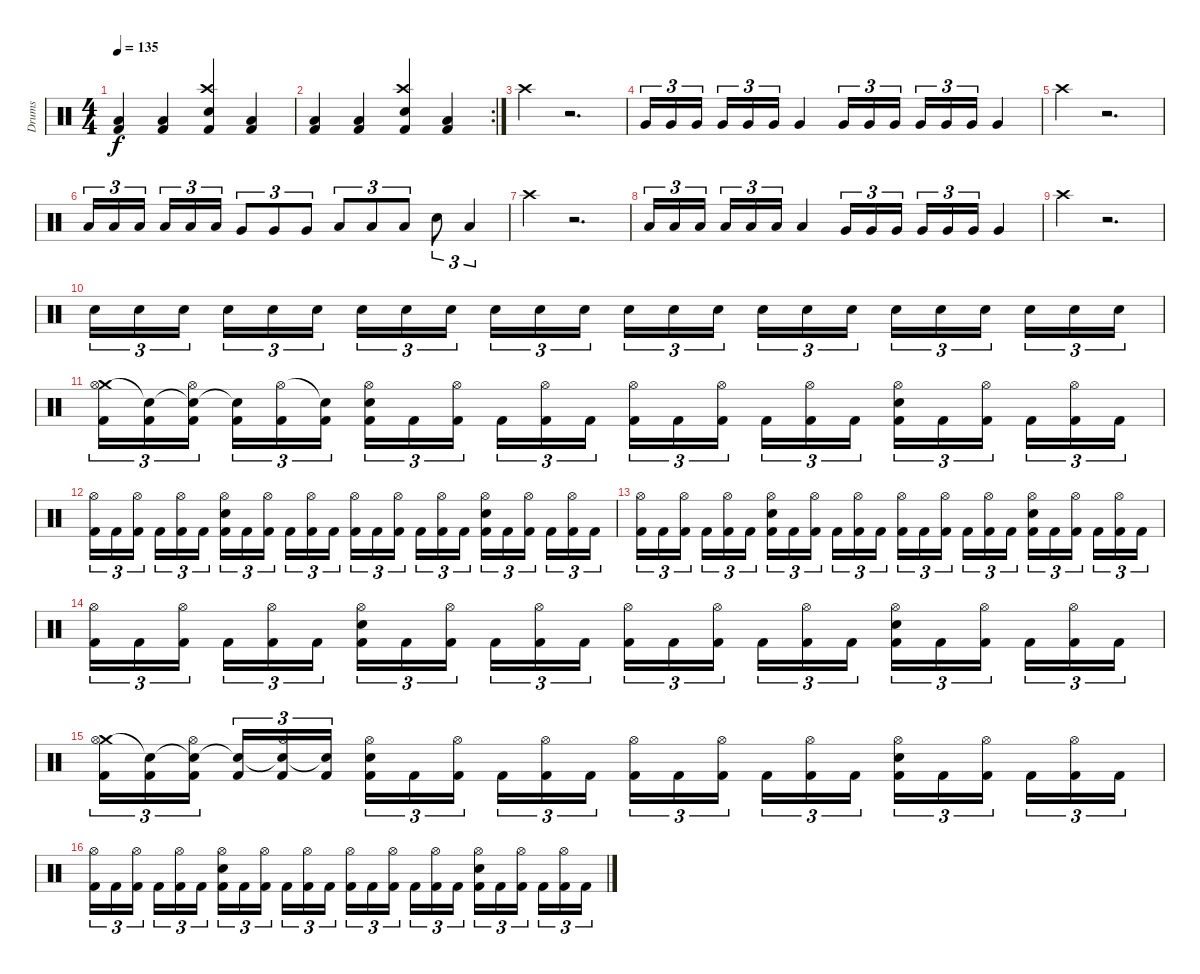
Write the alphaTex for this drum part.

\track ("Drums" "Drums") {instrument percussion}
\staff {score}
\articulation defaults
\ts (4 4)
\tempo 135
\clef neutral
\ks c
("Low Floor Tom (hit)" "Kick (hit) 2").4{dy f} ("Low Floor Tom (hit)" "Kick (hit) 2").4 ("Crash high (hit)" "Electric Snare (hit)" "Kick (hit) 2").4 ("Low Floor Tom (hit)" "Kick (hit) 2").4 |
\rc 2
("Low Floor Tom (hit)" "Kick (hit) 2").4 ("Low Floor Tom (hit)" "Kick (hit) 2").4 ("Crash high (hit)" "Electric Snare (hit)" "Kick (hit) 2").4 ("Low Floor Tom (hit)" "Kick (hit) 2").4 |
"Crash high (hit)".4 r.2{d} |
"Very Low Tom (hit)".16{tu (3 2)} "Very Low Tom (hit)".16{tu (3 2)} "Very Low Tom (hit)".16{tu (3 2)} "Very Low Tom (hit)".16{tu (3 2)} "Very Low Tom (hit)".16{tu (3 2)} "Very Low Tom (hit)".16{tu (3 2)} "Very Low Tom (hit)".4 "Very Low Tom (hit)".16{tu (3 2)} "Very Low Tom (hit)".16{tu (3 2)} "Very Low Tom (hit)".16{tu (3 2)} "Very Low Tom (hit)".16{tu (3 2)} "Very Low Tom (hit)".16{tu (3 2)} "Very Low Tom (hit)".16{tu (3 2)} "Very Low Tom (hit)".4 |
"Crash high (hit)".4 r.2{d} |
"Low Tom (hit)".16{tu (3 2)} "Low Tom (hit)".16{tu (3 2)} "Low Tom (hit)".16{tu (3 2)} "Low Tom (hit)".16{tu (3 2)} "Low Tom (hit)".16{tu (3 2)} "Low Tom (hit)".16{tu (3 2)} "Very Low Tom (hit)".8{tu (3 2)} "Very Low Tom (hit)".8{tu (3 2)} "Very Low Tom (hit)".8{tu (3 2)} "Low Floor Tom (hit)".8{tu (3 2)} "Low Floor Tom (hit)".8{tu (3 2)} "Low Floor Tom (hit)".8{tu (3 2)} "Electric Snare (hit)".8{tu (3 2)} "Low Floor Tom (hit)".4{tu (3 2)} |
"Crash high (hit)".4 r.2{d} |
"Low Tom (hit)".16{tu (3 2)} "Low Tom (hit)".16{tu (3 2)} "Low Tom (hit)".16{tu (3 2)} "Low Tom (hit)".16{tu (3 2)} "Low Tom (hit)".16{tu (3 2)} "Low Tom (hit)".16{tu (3 2)} "Low Tom (hit)".4 "Very Low Tom (hit)".16{tu (3 2)} "Very Low Tom (hit)".16{tu (3 2)} "Very Low Tom (hit)".16{tu (3 2)} "Very Low Tom (hit)".16{tu (3 2)} "Very Low Tom (hit)".16{tu (3 2)} "Very Low Tom (hit)".16{tu (3 2)} "Very Low Tom (hit)".4 |
"Crash high (hit)".4 r.2{d} |
"Electric Snare (hit)".16{tu (3 2)} "Electric Snare (hit)".16{tu (3 2)} "Electric Snare (hit)".16{tu (3 2)} "Electric Snare (hit)".16{tu (3 2)} "Electric Snare (hit)".16{tu (3 2)} "Electric Snare (hit)".16{tu (3 2)} "Electric Snare (hit)".16{tu (3 2)} "Electric Snare (hit)".16{tu (3 2)} "Electric Snare (hit)".16{tu (3 2)} "Electric Snare (hit)".16{tu (3 2)} "Electric Snare (hit)".16{tu (3 2)} "Electric Snare (hit)".16{tu (3 2)} "Electric Snare (hit)".16{tu (3 2)} "Electric Snare (hit)".16{tu (3 2)} "Electric Snare (hit)".16{tu (3 2)} "Electric Snare (hit)".16{tu (3 2)} "Electric Snare (hit)".16{tu (3 2)} "Electric Snare (hit)".16{tu (3 2)} "Electric Snare (hit)".16{tu (3 2)} "Electric Snare (hit)".16{tu (3 2)} "Electric Snare (hit)".16{tu (3 2)} "Electric Snare (hit)".16{tu (3 2)} "Electric Snare (hit)".16{tu (3 2)} "Electric Snare (hit)".16{tu (3 2)} |
("Crash medium (hit)" "Hi-Hat (open)" "Kick (hit) 2").16{tu (3 2)} ("Snare (hit)"{t} "Kick (hit) 2").16{tu (3 2)} ("Snare (hit)"{t} "Hi-Hat (open)" "Kick (hit) 2").16{tu (3 2)} ("Snare (hit)"{t} "Kick (hit) 2").16{tu (3 2)} ("Hi-Hat (open)" "Kick (hit) 2").16{tu (3 2)} ("Snare (hit)"{t} "Kick (hit) 2").16{tu (3 2)} ("Hi-Hat (open)" "Electric Snare (hit)" "Kick (hit) 2").16{tu (3 2)} "Kick (hit) 2".16{tu (3 2)} ("Hi-Hat (open)" "Kick (hit) 2").16{tu (3 2)} "Kick (hit) 2".16{tu (3 2)} ("Hi-Hat (open)" "Kick (hit) 2").16{tu (3 2)} "Kick (hit) 2".16{tu (3 2)} ("Hi-Hat (open)" "Kick (hit) 2").16{tu (3 2)} "Kick (hit) 2".16{tu (3 2)} ("Hi-Hat (open)" "Kick (hit) 2").16{tu (3 2)} "Kick (hit) 2".16{tu (3 2)} ("Hi-Hat (open)" "Kick (hit) 2").16{tu (3 2)} "Kick (hit) 2".16{tu (3 2)} ("Hi-Hat (open)" "Electric Snare (hit)" "Kick (hit) 2").16{tu (3 2)} "Kick (hit) 2".16{tu (3 2)} ("Hi-Hat (open)" "Kick (hit) 2").16{tu (3 2)} "Kick (hit) 2".16{tu (3 2)} ("Hi-Hat (open)" "Kick (hit) 2").16{tu (3 2)} "Kick (hit) 2".16{tu (3 2)} |
("Hi-Hat (open)" "Kick (hit) 2").16{tu (3 2)} "Kick (hit) 2".16{tu (3 2)} ("Hi-Hat (open)" "Kick (hit) 2").16{tu (3 2)} "Kick (hit) 2".16{tu (3 2)} ("Hi-Hat (open)" "Kick (hit) 2").16{tu (3 2)} "Kick (hit) 2".16{tu (3 2)} ("Hi-Hat (open)" "Electric Snare (hit)" "Kick (hit) 2").16{tu (3 2)} "Kick (hit) 2".16{tu (3 2)} ("Hi-Hat (open)" "Kick (hit) 2").16{tu (3 2)} "Kick (hit) 2".16{tu (3 2)} ("Hi-Hat (open)" "Kick (hit) 2").16{tu (3 2)} "Kick (hit) 2".16{tu (3 2)} ("Hi-Hat (open)" "Kick (hit) 2").16{tu (3 2)} "Kick (hit) 2".16{tu (3 2)} ("Hi-Hat (open)" "Kick (hit) 2").16{tu (3 2)} "Kick (hit) 2".16{tu (3 2)} ("Hi-Hat (open)" "Kick (hit) 2").16{tu (3 2)} "Kick (hit) 2".16{tu (3 2)} ("Hi-Hat (open)" "Electric Snare (hit)" "Kick (hit) 2").16{tu (3 2)} "Kick (hit) 2".16{tu (3 2)} ("Hi-Hat (open)" "Kick (hit) 2").16{tu (3 2)} "Kick (hit) 2".16{tu (3 2)} ("Hi-Hat (open)" "Kick (hit) 2").16{tu (3 2)} "Kick (hit) 2".16{tu (3 2)} |
("Hi-Hat (open)" "Kick (hit) 2").16{tu (3 2)} "Kick (hit) 2".16{tu (3 2)} ("Hi-Hat (open)" "Kick (hit) 2").16{tu (3 2)} "Kick (hit) 2".16{tu (3 2)} ("Hi-Hat (open)" "Kick (hit) 2").16{tu (3 2)} "Kick (hit) 2".16{tu (3 2)} ("Hi-Hat (open)" "Electric Snare (hit)" "Kick (hit) 2").16{tu (3 2)} "Kick (hit) 2".16{tu (3 2)} ("Hi-Hat (open)" "Kick (hit) 2").16{tu (3 2)} "Kick (hit) 2".16{tu (3 2)} ("Hi-Hat (open)" "Kick (hit) 2").16{tu (3 2)} "Kick (hit) 2".16{tu (3 2)} ("Hi-Hat (open)" "Kick (hit) 2").16{tu (3 2)} "Kick (hit) 2".16{tu (3 2)} ("Hi-Hat (open)" "Kick (hit) 2").16{tu (3 2)} "Kick (hit) 2".16{tu (3 2)} ("Hi-Hat (open)" "Kick (hit) 2").16{tu (3 2)} "Kick (hit) 2".16{tu (3 2)} ("Hi-Hat (open)" "Electric Snare (hit)" "Kick (hit) 2").16{tu (3 2)} "Kick (hit) 2".16{tu (3 2)} ("Hi-Hat (open)" "Kick (hit) 2").16{tu (3 2)} "Kick (hit) 2".16{tu (3 2)} ("Hi-Hat (open)" "Kick (hit) 2").16{tu (3 2)} "Kick (hit) 2".16{tu (3 2)} |
("Hi-Hat (open)" "Kick (hit) 2").16{tu (3 2)} "Kick (hit) 2".16{tu (3 2)} ("Hi-Hat (open)" "Kick (hit) 2").16{tu (3 2)} "Kick (hit) 2".16{tu (3 2)} ("Hi-Hat (open)" "Kick (hit) 2").16{tu (3 2)} "Kick (hit) 2".16{tu (3 2)} ("Hi-Hat (open)" "Electric Snare (hit)" "Kick (hit) 2").16{tu (3 2)} "Kick (hit) 2".16{tu (3 2)} ("Hi-Hat (open)" "Kick (hit) 2").16{tu (3 2)} "Kick (hit) 2".16{tu (3 2)} ("Hi-Hat (open)" "Kick (hit) 2").16{tu (3 2)} "Kick (hit) 2".16{tu (3 2)} ("Hi-Hat (open)" "Kick (hit) 2").16{tu (3 2)} "Kick (hit) 2".16{tu (3 2)} ("Hi-Hat (open)" "Kick (hit) 2").16{tu (3 2)} "Kick (hit) 2".16{tu (3 2)} ("Hi-Hat (open)" "Kick (hit) 2").16{tu (3 2)} "Kick (hit) 2".16{tu (3 2)} ("Hi-Hat (open)" "Electric Snare (hit)" "Kick (hit) 2").16{tu (3 2)} "Kick (hit) 2".16{tu (3 2)} ("Hi-Hat (open)" "Kick (hit) 2").16{tu (3 2)} "Kick (hit) 2".16{tu (3 2)} ("Hi-Hat (open)" "Kick (hit) 2").16{tu (3 2)} "Kick (hit) 2".16{tu (3 2)} |
("Crash medium (hit)" "Hi-Hat (open)" "Kick (hit) 2").16{tu (3 2)} ("Snare (hit)"{t} "Kick (hit) 2").16{tu (3 2)} ("Snare (hit)"{t} "Hi-Hat (open)" "Kick (hit) 2").16{tu (3 2)} ("Snare (hit)"{t} "Kick (hit) 2").16{tu (3 2)} ("Snare (hit)"{t} "Hi-Hat (open)" "Kick (hit) 2").16{tu (3 2)} ("Snare (hit)"{t} "Kick (hit) 2").16{tu (3 2)} ("Hi-Hat (open)" "Electric Snare (hit)" "Kick (hit) 2").16{tu (3 2)} "Kick (hit) 2".16{tu (3 2)} ("Hi-Hat (open)" "Kick (hit) 2").16{tu (3 2)} "Kick (hit) 2".16{tu (3 2)} ("Hi-Hat (open)" "Kick (hit) 2").16{tu (3 2)} "Kick (hit) 2".16{tu (3 2)} ("Hi-Hat (open)" "Kick (hit) 2").16{tu (3 2)} "Kick (hit) 2".16{tu (3 2)} ("Hi-Hat (open)" "Kick (hit) 2").16{tu (3 2)} "Kick (hit) 2".16{tu (3 2)} ("Hi-Hat (open)" "Kick (hit) 2").16{tu (3 2)} "Kick (hit) 2".16{tu (3 2)} ("Hi-Hat (open)" "Electric Snare (hit)" "Kick (hit) 2").16{tu (3 2)} "Kick (hit) 2".16{tu (3 2)} ("Hi-Hat (open)" "Kick (hit) 2").16{tu (3 2)} "Kick (hit) 2".16{tu (3 2)} ("Hi-Hat (open)" "Kick (hit) 2").16{tu (3 2)} "Kick (hit) 2".16{tu (3 2)} |
("Hi-Hat (open)" "Kick (hit) 2").16{tu (3 2)} "Kick (hit) 2".16{tu (3 2)} ("Hi-Hat (open)" "Kick (hit) 2").16{tu (3 2)} "Kick (hit) 2".16{tu (3 2)} ("Hi-Hat (open)" "Kick (hit) 2").16{tu (3 2)} "Kick (hit) 2".16{tu (3 2)} ("Hi-Hat (open)" "Electric Snare (hit)" "Kick (hit) 2").16{tu (3 2)} "Kick (hit) 2".16{tu (3 2)} ("Hi-Hat (open)" "Kick (hit) 2").16{tu (3 2)} "Kick (hit) 2".16{tu (3 2)} ("Hi-Hat (open)" "Kick (hit) 2").16{tu (3 2)} "Kick (hit) 2".16{tu (3 2)} ("Hi-Hat (open)" "Kick (hit) 2").16{tu (3 2)} "Kick (hit) 2".16{tu (3 2)} ("Hi-Hat (open)" "Kick (hit) 2").16{tu (3 2)} "Kick (hit) 2".16{tu (3 2)} ("Hi-Hat (open)" "Kick (hit) 2").16{tu (3 2)} "Kick (hit) 2".16{tu (3 2)} ("Hi-Hat (open)" "Electric Snare (hit)" "Kick (hit) 2").16{tu (3 2)} "Kick (hit) 2".16{tu (3 2)} ("Hi-Hat (open)" "Kick (hit) 2").16{tu (3 2)} "Kick (hit) 2".16{tu (3 2)} ("Hi-Hat (open)" "Kick (hit) 2").16{tu (3 2)} "Kick (hit) 2".16{tu (3 2)}
